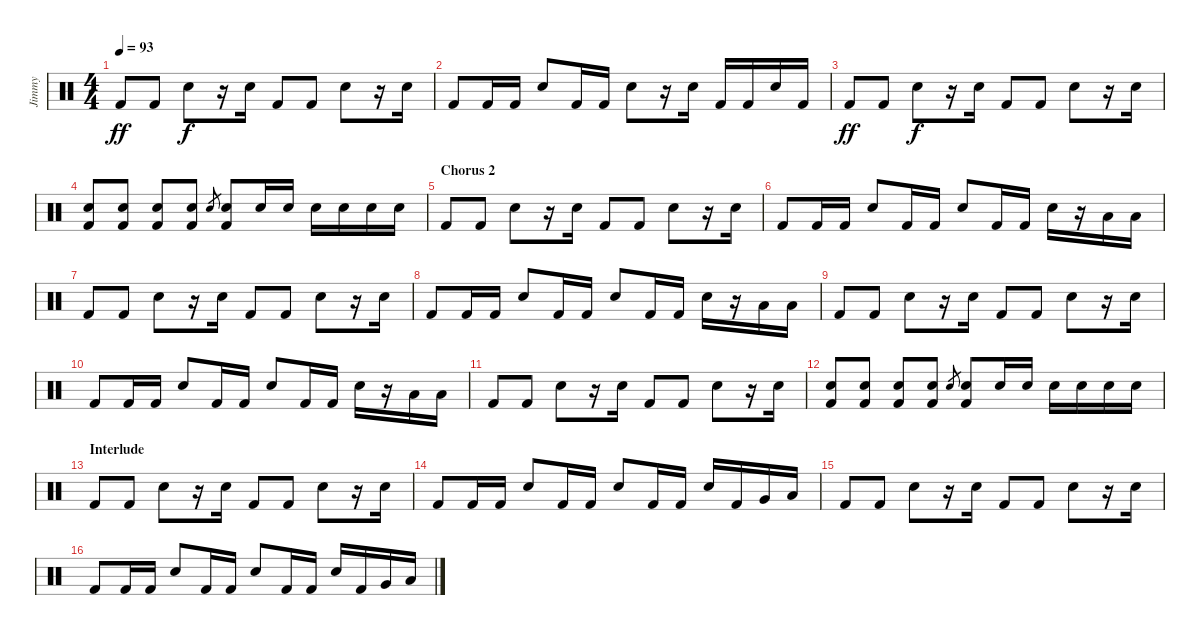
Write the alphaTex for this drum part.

\track ("Jimmy" "Jimmy") {instrument percussion}
\staff {score}
\articulation defaults
\ts (4 4)
\tempo 93
\clef neutral
\ks c "Kick (hit) 2".8{dy ff} "Kick (hit) 2".8 "Snare (hit) 2".8{dy f}
r.16 "Snare (hit) 2".16 "Kick (hit) 2".8 "Kick (hit) 2".8 "Snare (hit) 2".8 r.16 "Snare (hit) 2".16 |
"Kick (hit) 2".8 "Kick (hit) 2".16 "Kick (hit) 2".16 "Snare (hit) 2".8 "Kick (hit) 2".16 "Kick (hit) 2".16 "Snare (hit) 2".8 r.16 "Snare (hit) 2".16 "Kick (hit) 2".16 "Kick (hit) 2".16 "Snare (hit) 2".16 "Kick (hit) 2".16 |
"Kick (hit) 2".8{dy ff} "Kick (hit) 2".8 "Snare (hit) 2".8{dy f} r.16 "Snare (hit) 2".16 "Kick (hit) 2".8 "Kick (hit) 2".8 "Snare (hit) 2".8 r.16 "Snare (hit) 2".16 |
("Snare (hit) 2" "Kick (hit) 2").8 ("Snare (hit) 2" "Kick (hit) 2").8 ("Snare (hit) 2" "Kick (hit) 2").8 ("Snare (hit) 2" "Kick (hit) 2").8 "Snare (hit) 2".8{gr} ("Snare (hit) 2" "Kick (hit) 2").8 "Snare (hit) 2".16 "Snare (hit) 2".16 "Snare (hit) 2".16 "Snare (hit) 2".16 "Snare (hit) 2".16 "Snare (hit) 2".16 |
\section ("" "Chorus 2")
"Kick (hit) 2".8 "Kick (hit) 2".8 "Snare (hit) 2".8 r.16 "Snare (hit) 2".16 "Kick (hit) 2".8 "Kick (hit) 2".8 "Snare (hit) 2".8 r.16 "Snare (hit) 2".16 |
"Kick (hit) 2".8 "Kick (hit) 2".16 "Kick (hit) 2".16 "Snare (hit) 2".8 "Kick (hit) 2".16 "Kick (hit) 2".16 "Snare (hit) 2".8 "Kick (hit) 2".16 "Kick (hit) 2".16 "Snare (hit) 2".16 r.16 "Low Tom (hit)".16 "Low Floor Tom (hit)".16 |
"Kick (hit) 2".8 "Kick (hit) 2".8 "Snare (hit) 2".8 r.16 "Snare (hit) 2".16 "Kick (hit) 2".8 "Kick (hit) 2".8 "Snare (hit) 2".8 r.16 "Snare (hit) 2".16 |
"Kick (hit) 2".8 "Kick (hit) 2".16 "Kick (hit) 2".16 "Snare (hit) 2".8 "Kick (hit) 2".16 "Kick (hit) 2".16 "Snare (hit) 2".8 "Kick (hit) 2".16 "Kick (hit) 2".16 "Snare (hit) 2".16 r.16 "Low Tom (hit)".16 "Low Floor Tom (hit)".16 |
"Kick (hit) 2".8 "Kick (hit) 2".8 "Snare (hit) 2".8 r.16 "Snare (hit) 2".16 "Kick (hit) 2".8 "Kick (hit) 2".8 "Snare (hit) 2".8 r.16 "Snare (hit) 2".16 |
"Kick (hit) 2".8 "Kick (hit) 2".16 "Kick (hit) 2".16 "Snare (hit) 2".8 "Kick (hit) 2".16 "Kick (hit) 2".16 "Snare (hit) 2".8 "Kick (hit) 2".16 "Kick (hit) 2".16 "Snare (hit) 2".16 r.16 "Low Tom (hit)".16 "Low Floor Tom (hit)".16 |
"Kick (hit) 2".8 "Kick (hit) 2".8 "Snare (hit) 2".8 r.16 "Snare (hit) 2".16 "Kick (hit) 2".8 "Kick (hit) 2".8 "Snare (hit) 2".8 r.16 "Snare (hit) 2".16 |
("Snare (hit) 2" "Kick (hit) 2").8 ("Snare (hit) 2" "Kick (hit) 2").8 ("Snare (hit) 2" "Kick (hit) 2").8 ("Snare (hit) 2" "Kick (hit) 2").8 "Snare (hit) 2".8{gr} ("Snare (hit) 2" "Kick (hit) 2").8 "Snare (hit) 2".16 "Snare (hit) 2".16 "Snare (hit) 2".16 "Snare (hit) 2".16 "Snare (hit) 2".16 "Snare (hit) 2".16 |
\section ("" "Interlude")
"Kick (hit) 2".8 "Kick (hit) 2".8 "Snare (hit) 2".8 r.16 "Snare (hit) 2".16 "Kick (hit) 2".8 "Kick (hit) 2".8 "Snare (hit) 2".8 r.16 "Snare (hit) 2".16 |
"Kick (hit) 2".8 "Kick (hit) 2".16 "Kick (hit) 2".16 "Snare (hit) 2".8 "Kick (hit) 2".16 "Kick (hit) 2".16 "Snare (hit) 2".8 "Kick (hit) 2".16 "Kick (hit) 2".16 "Snare (hit) 2".16 "Kick (hit) 2".16 "Very Low Tom (hit)".16 "Low Floor Tom (hit)".16 |
"Kick (hit) 2".8 "Kick (hit) 2".8 "Snare (hit) 2".8 r.16 "Snare (hit) 2".16 "Kick (hit) 2".8 "Kick (hit) 2".8 "Snare (hit) 2".8 r.16 "Snare (hit) 2".16 |
"Kick (hit) 2".8 "Kick (hit) 2".16 "Kick (hit) 2".16 "Snare (hit) 2".8 "Kick (hit) 2".16 "Kick (hit) 2".16 "Snare (hit) 2".8 "Kick (hit) 2".16 "Kick (hit) 2".16 "Snare (hit) 2".16 "Kick (hit) 2".16 "Very Low Tom (hit)".16 "Low Floor Tom (hit)".16
